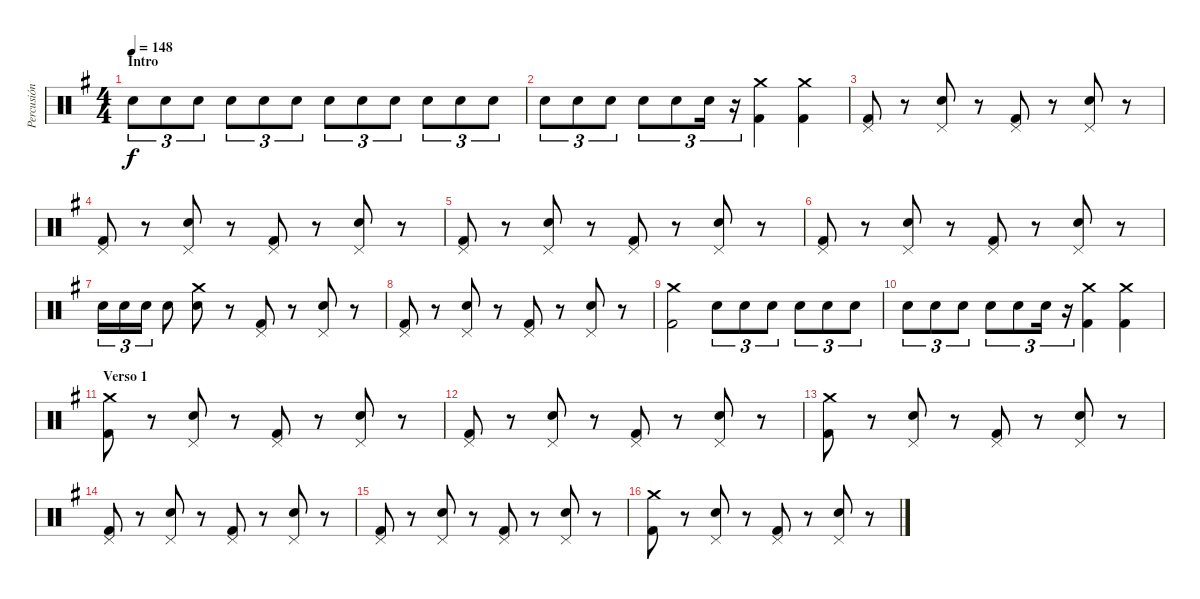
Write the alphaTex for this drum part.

\track ("Percusión" "Percusión") {instrument percussion}
\staff {score}
\articulation defaults
\ts (4 4)
\section ("" "Intro")
\tempo 148
\clef neutral
\ks g "Snare (hit) 2".8{tu (3 2) dy f} "Snare (hit) 2".8{tu (3 2)} "Snare (hit) 2".8{tu (3 2)} "Snare (hit) 2".8{tu (3 2)} "Snare (hit) 2".8{tu (3 2)} "Snare (hit) 2".8{tu (3 2)} "Snare (hit) 2".8{tu (3 2)} "Snare (hit) 2".8{tu (3 2)} "Snare (hit) 2".8{tu (3 2)} "Snare (hit) 2".8{tu (3 2)} "Snare (hit) 2".8{tu (3 2)} "Snare (hit) 2".8{tu (3 2)}
|
"Snare (hit) 2".8{tu (3 2)} "Snare (hit) 2".8{tu (3 2)} "Snare (hit) 2".8{tu (3 2)} "Snare (hit) 2".8{tu (3 2)} "Snare (hit) 2".8{tu (3 2)} "Snare (hit) 2".16{tu (3 2)} r.16{tu (3 2)} ("Crash medium (hit)" "Kick (hit) 2").4 ("Crash medium (hit)" "Kick (hit) 2").4 |
("Pedal Hi-Hat (hit)" "Kick (hit) 2").8 r.8 ("Pedal Hi-Hat (hit)" "Snare (hit) 2").8 r.8 ("Pedal Hi-Hat (hit)" "Kick (hit) 2").8 r.8 ("Pedal Hi-Hat (hit)" "Snare (hit) 2").8 r.8 |
("Pedal Hi-Hat (hit)" "Kick (hit) 2").8 r.8 ("Pedal Hi-Hat (hit)" "Snare (hit) 2").8 r.8 ("Pedal Hi-Hat (hit)" "Kick (hit) 2").8 r.8 ("Pedal Hi-Hat (hit)" "Snare (hit) 2").8 r.8 |
("Pedal Hi-Hat (hit)" "Kick (hit) 2").8 r.8 ("Pedal Hi-Hat (hit)" "Snare (hit) 2").8 r.8 ("Pedal Hi-Hat (hit)" "Kick (hit) 2").8 r.8 ("Pedal Hi-Hat (hit)" "Snare (hit) 2").8 r.8 |
("Pedal Hi-Hat (hit)" "Kick (hit) 2").8 r.8 ("Pedal Hi-Hat (hit)" "Snare (hit) 2").8 r.8 ("Pedal Hi-Hat (hit)" "Kick (hit) 2").8 r.8 ("Pedal Hi-Hat (hit)" "Snare (hit) 2").8 r.8 |
"Snare (hit) 2".16{tu (3 2)} "Snare (hit) 2".16{tu (3 2)} "Snare (hit) 2".16{tu (3 2)} "Snare (hit) 2".8 ("Crash medium (hit)" "Snare (hit) 2").8 r.8 ("Pedal Hi-Hat (hit)" "Kick (hit) 2").8 r.8 ("Pedal Hi-Hat (hit)" "Snare (hit) 2").8 r.8 |
("Pedal Hi-Hat (hit)" "Kick (hit) 2").8 r.8 ("Pedal Hi-Hat (hit)" "Snare (hit) 2").8 r.8 ("Pedal Hi-Hat (hit)" "Kick (hit) 2").8 r.8 ("Pedal Hi-Hat (hit)" "Snare (hit) 2").8 r.8 |
("Crash medium (hit)" "Kick (hit) 2").2 "Snare (hit) 2".8{tu (3 2)} "Snare (hit) 2".8{tu (3 2)} "Snare (hit) 2".8{tu (3 2)} "Snare (hit) 2".8{tu (3 2)} "Snare (hit) 2".8{tu (3 2)} "Snare (hit) 2".8{tu (3 2)} |
"Snare (hit) 2".8{tu (3 2)} "Snare (hit) 2".8{tu (3 2)} "Snare (hit) 2".8{tu (3 2)} "Snare (hit) 2".8{tu (3 2)} "Snare (hit) 2".8{tu (3 2)} "Snare (hit) 2".16{tu (3 2)} r.16{tu (3 2)} ("Crash medium (hit)" "Kick (hit) 2").4 ("Crash medium (hit)" "Kick (hit) 2").4 |
\section ("" "Verso 1")
("Crash medium (hit)" "Kick (hit) 2").8 r.8 ("Pedal Hi-Hat (hit)" "Snare (hit) 2").8 r.8 ("Pedal Hi-Hat (hit)" "Kick (hit) 2").8 r.8 ("Pedal Hi-Hat (hit)" "Snare (hit) 2").8 r.8 |
("Pedal Hi-Hat (hit)" "Kick (hit) 2").8 r.8 ("Pedal Hi-Hat (hit)" "Snare (hit) 2").8 r.8 ("Pedal Hi-Hat (hit)" "Kick (hit) 2").8 r.8 ("Pedal Hi-Hat (hit)" "Snare (hit) 2").8 r.8 |
("Crash medium (hit)" "Kick (hit) 2").8 r.8 ("Pedal Hi-Hat (hit)" "Snare (hit) 2").8 r.8 ("Pedal Hi-Hat (hit)" "Kick (hit) 2").8 r.8 ("Pedal Hi-Hat (hit)" "Snare (hit) 2").8 r.8 |
("Pedal Hi-Hat (hit)" "Kick (hit) 2").8 r.8 ("Pedal Hi-Hat (hit)" "Snare (hit) 2").8 r.8 ("Pedal Hi-Hat (hit)" "Kick (hit) 2").8 r.8 ("Pedal Hi-Hat (hit)" "Snare (hit) 2").8 r.8 |
("Pedal Hi-Hat (hit)" "Kick (hit) 2").8 r.8 ("Pedal Hi-Hat (hit)" "Snare (hit) 2").8 r.8 ("Pedal Hi-Hat (hit)" "Kick (hit) 2").8 r.8 ("Pedal Hi-Hat (hit)" "Snare (hit) 2").8 r.8 |
("Crash medium (hit)" "Kick (hit) 2").8 r.8 ("Pedal Hi-Hat (hit)" "Snare (hit) 2").8 r.8 ("Pedal Hi-Hat (hit)" "Kick (hit) 2").8 r.8 ("Pedal Hi-Hat (hit)" "Snare (hit) 2").8 r.8
